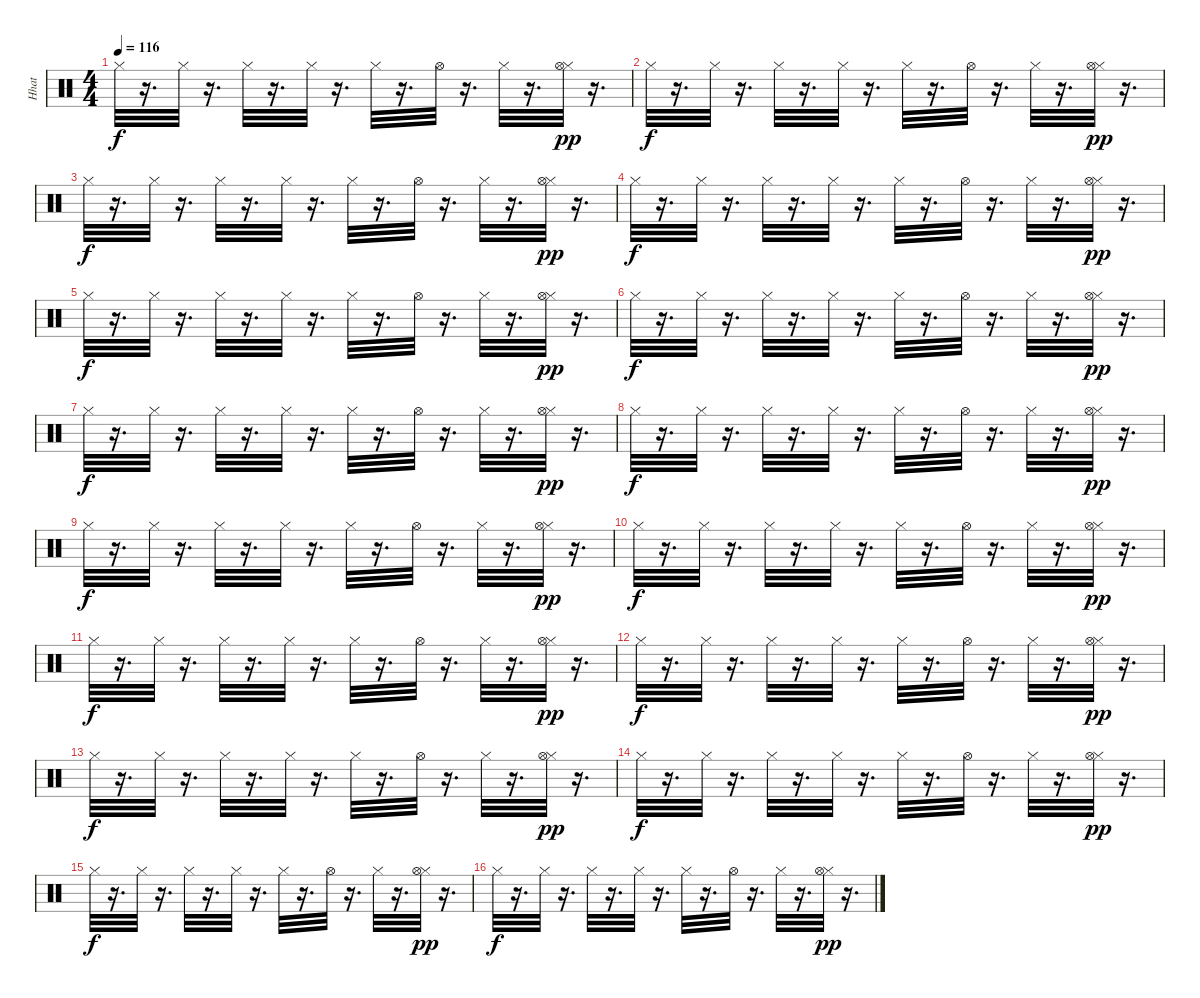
\track ("Hhat" "Hhat") {instrument percussion}
\staff {score}
\articulation defaults
\ts (4 4)
\tempo 116
\clef neutral
\ks c "Hi-Hat (closed)".32{dy f}
r.16{d} "Hi-Hat (closed)".32 r.16{d} "Hi-Hat (closed)".32 r.16{d} "Hi-Hat (closed)".32 r.16{d} "Hi-Hat (closed)".32 r.16{d} "Hi-Hat (open)".32 r.16{d} "Hi-Hat (closed)".32 r.16{d} ("Hi-Hat (closed)" "Hi-Hat (open)").32{dy pp} r.16{d} |
"Hi-Hat (closed)".32{dy f} r.16{d} "Hi-Hat (closed)".32 r.16{d} "Hi-Hat (closed)".32 r.16{d} "Hi-Hat (closed)".32 r.16{d} "Hi-Hat (closed)".32 r.16{d} "Hi-Hat (open)".32 r.16{d} "Hi-Hat (closed)".32 r.16{d} ("Hi-Hat (closed)" "Hi-Hat (open)").32{dy pp} r.16{d} |
"Hi-Hat (closed)".32{dy f} r.16{d} "Hi-Hat (closed)".32 r.16{d} "Hi-Hat (closed)".32 r.16{d} "Hi-Hat (closed)".32 r.16{d} "Hi-Hat (closed)".32 r.16{d} "Hi-Hat (open)".32 r.16{d} "Hi-Hat (closed)".32 r.16{d} ("Hi-Hat (closed)" "Hi-Hat (open)").32{dy pp} r.16{d} |
"Hi-Hat (closed)".32{dy f} r.16{d} "Hi-Hat (closed)".32 r.16{d} "Hi-Hat (closed)".32 r.16{d} "Hi-Hat (closed)".32 r.16{d} "Hi-Hat (closed)".32 r.16{d} "Hi-Hat (open)".32 r.16{d} "Hi-Hat (closed)".32 r.16{d} ("Hi-Hat (closed)" "Hi-Hat (open)").32{dy pp} r.16{d} |
"Hi-Hat (closed)".32{dy f} r.16{d} "Hi-Hat (closed)".32 r.16{d} "Hi-Hat (closed)".32 r.16{d} "Hi-Hat (closed)".32 r.16{d} "Hi-Hat (closed)".32 r.16{d} "Hi-Hat (open)".32 r.16{d} "Hi-Hat (closed)".32 r.16{d} ("Hi-Hat (closed)" "Hi-Hat (open)").32{dy pp} r.16{d} |
"Hi-Hat (closed)".32{dy f} r.16{d} "Hi-Hat (closed)".32 r.16{d} "Hi-Hat (closed)".32 r.16{d} "Hi-Hat (closed)".32 r.16{d} "Hi-Hat (closed)".32 r.16{d} "Hi-Hat (open)".32 r.16{d} "Hi-Hat (closed)".32 r.16{d} ("Hi-Hat (closed)" "Hi-Hat (open)").32{dy pp} r.16{d} |
"Hi-Hat (closed)".32{dy f} r.16{d} "Hi-Hat (closed)".32 r.16{d} "Hi-Hat (closed)".32 r.16{d} "Hi-Hat (closed)".32 r.16{d} "Hi-Hat (closed)".32 r.16{d} "Hi-Hat (open)".32 r.16{d} "Hi-Hat (closed)".32 r.16{d} ("Hi-Hat (closed)" "Hi-Hat (open)").32{dy pp} r.16{d} |
"Hi-Hat (closed)".32{dy f} r.16{d} "Hi-Hat (closed)".32 r.16{d} "Hi-Hat (closed)".32 r.16{d} "Hi-Hat (closed)".32 r.16{d} "Hi-Hat (closed)".32 r.16{d} "Hi-Hat (open)".32 r.16{d} "Hi-Hat (closed)".32 r.16{d} ("Hi-Hat (closed)" "Hi-Hat (open)").32{dy pp} r.16{d} |
"Hi-Hat (closed)".32{dy f} r.16{d} "Hi-Hat (closed)".32 r.16{d} "Hi-Hat (closed)".32 r.16{d} "Hi-Hat (closed)".32 r.16{d} "Hi-Hat (closed)".32 r.16{d} "Hi-Hat (open)".32 r.16{d} "Hi-Hat (closed)".32 r.16{d} ("Hi-Hat (closed)" "Hi-Hat (open)").32{dy pp} r.16{d} |
"Hi-Hat (closed)".32{dy f} r.16{d} "Hi-Hat (closed)".32 r.16{d} "Hi-Hat (closed)".32 r.16{d} "Hi-Hat (closed)".32 r.16{d} "Hi-Hat (closed)".32 r.16{d} "Hi-Hat (open)".32 r.16{d} "Hi-Hat (closed)".32 r.16{d} ("Hi-Hat (closed)" "Hi-Hat (open)").32{dy pp} r.16{d} |
"Hi-Hat (closed)".32{dy f} r.16{d} "Hi-Hat (closed)".32 r.16{d} "Hi-Hat (closed)".32 r.16{d} "Hi-Hat (closed)".32 r.16{d} "Hi-Hat (closed)".32 r.16{d} "Hi-Hat (open)".32 r.16{d} "Hi-Hat (closed)".32 r.16{d} ("Hi-Hat (closed)" "Hi-Hat (open)").32{dy pp} r.16{d} |
"Hi-Hat (closed)".32{dy f} r.16{d} "Hi-Hat (closed)".32 r.16{d} "Hi-Hat (closed)".32 r.16{d} "Hi-Hat (closed)".32 r.16{d} "Hi-Hat (closed)".32 r.16{d} "Hi-Hat (open)".32 r.16{d} "Hi-Hat (closed)".32 r.16{d} ("Hi-Hat (closed)" "Hi-Hat (open)").32{dy pp} r.16{d} |
"Hi-Hat (closed)".32{dy f} r.16{d} "Hi-Hat (closed)".32 r.16{d} "Hi-Hat (closed)".32 r.16{d} "Hi-Hat (closed)".32 r.16{d} "Hi-Hat (closed)".32 r.16{d} "Hi-Hat (open)".32 r.16{d} "Hi-Hat (closed)".32 r.16{d} ("Hi-Hat (closed)" "Hi-Hat (open)").32{dy pp} r.16{d} |
"Hi-Hat (closed)".32{dy f} r.16{d} "Hi-Hat (closed)".32 r.16{d} "Hi-Hat (closed)".32 r.16{d} "Hi-Hat (closed)".32 r.16{d} "Hi-Hat (closed)".32 r.16{d} "Hi-Hat (open)".32 r.16{d} "Hi-Hat (closed)".32 r.16{d} ("Hi-Hat (closed)" "Hi-Hat (open)").32{dy pp} r.16{d} |
"Hi-Hat (closed)".32{dy f} r.16{d} "Hi-Hat (closed)".32 r.16{d} "Hi-Hat (closed)".32 r.16{d} "Hi-Hat (closed)".32 r.16{d} "Hi-Hat (closed)".32 r.16{d} "Hi-Hat (open)".32 r.16{d} "Hi-Hat (closed)".32 r.16{d} ("Hi-Hat (closed)" "Hi-Hat (open)").32{dy pp} r.16{d} |
"Hi-Hat (closed)".32{dy f} r.16{d} "Hi-Hat (closed)".32 r.16{d} "Hi-Hat (closed)".32 r.16{d} "Hi-Hat (closed)".32 r.16{d} "Hi-Hat (closed)".32 r.16{d} "Hi-Hat (open)".32 r.16{d} "Hi-Hat (closed)".32 r.16{d} ("Hi-Hat (closed)" "Hi-Hat (open)").32{dy pp} r.16{d}
